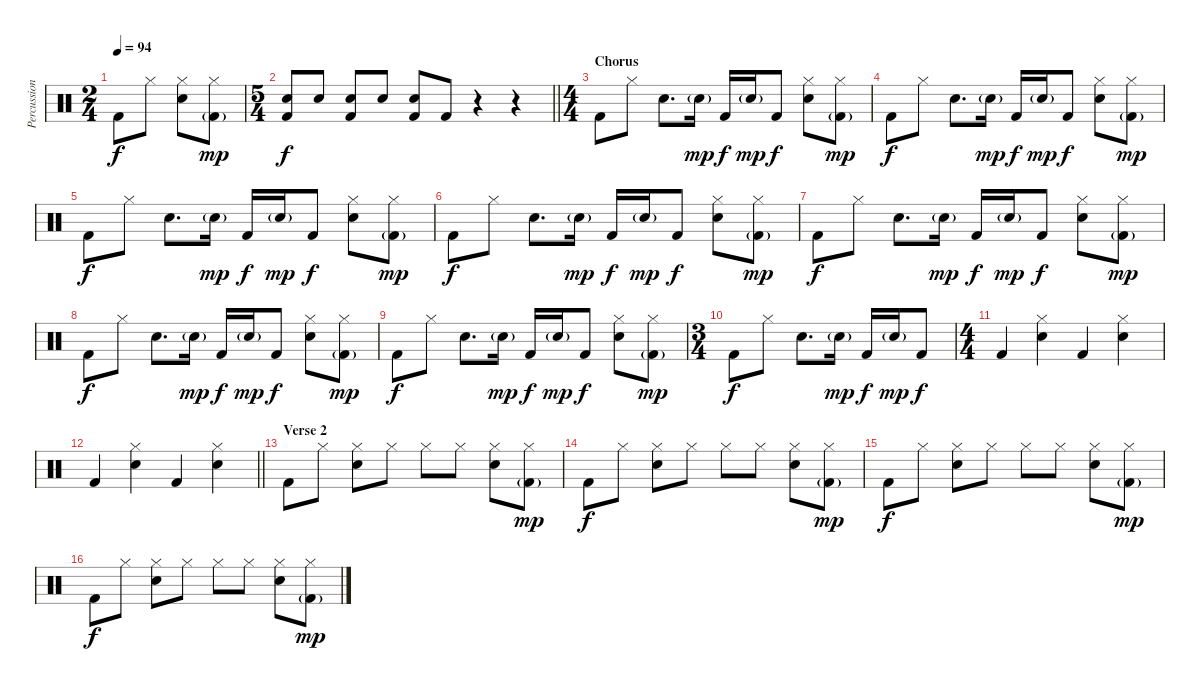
\track ("Percussion" "Percussion") {instrument percussion}
\staff {score}
\articulation defaults
\ts (2 4)
\tempo 94
\clef neutral
\ks c "Kick (hit) 2".8{dy f} "Hi-Hat (closed)".8
("Hi-Hat (closed)" "Snare (hit) 2").8 ("Hi-Hat (closed)" "Kick (hit) 2"{g}).8{dy mp} |
\ts (5 4)
\barLineRight lightlight
("Snare (hit) 2" "Kick (hit) 2").8{dy f} "Snare (hit) 2".8 ("Snare (hit) 2" "Kick (hit) 2").8 "Snare (hit) 2".8 ("Snare (hit) 2" "Kick (hit) 2").8 "Kick (hit) 2".8 r.4 r.4 |
\ts (4 4)
\section ("" "Chorus")
"Kick (hit) 2".8 "Hi-Hat (closed)".8 "Snare (hit) 2".8{d} "Snare (hit) 2"{g}.16{dy mp} "Kick (hit) 2".16{dy f} "Snare (hit) 2"{g}.16{dy mp} "Kick (hit) 2".8{dy f} ("Hi-Hat (closed)" "Snare (hit) 2").8 ("Hi-Hat (closed)" "Kick (hit) 2"{g}).8{dy mp} |
"Kick (hit) 2".8{dy f} "Hi-Hat (closed)".8 "Snare (hit) 2".8{d} "Snare (hit) 2"{g}.16{dy mp} "Kick (hit) 2".16{dy f} "Snare (hit) 2"{g}.16{dy mp} "Kick (hit) 2".8{dy f} ("Hi-Hat (closed)" "Snare (hit) 2").8 ("Hi-Hat (closed)" "Kick (hit) 2"{g}).8{dy mp} |
"Kick (hit) 2".8{dy f} "Hi-Hat (closed)".8 "Snare (hit) 2".8{d} "Snare (hit) 2"{g}.16{dy mp} "Kick (hit) 2".16{dy f} "Snare (hit) 2"{g}.16{dy mp} "Kick (hit) 2".8{dy f} ("Hi-Hat (closed)" "Snare (hit) 2").8 ("Hi-Hat (closed)" "Kick (hit) 2"{g}).8{dy mp} |
"Kick (hit) 2".8{dy f} "Hi-Hat (closed)".8 "Snare (hit) 2".8{d} "Snare (hit) 2"{g}.16{dy mp} "Kick (hit) 2".16{dy f} "Snare (hit) 2"{g}.16{dy mp} "Kick (hit) 2".8{dy f} ("Hi-Hat (closed)" "Snare (hit) 2").8 ("Hi-Hat (closed)" "Kick (hit) 2"{g}).8{dy mp} |
"Kick (hit) 2".8{dy f} "Hi-Hat (closed)".8 "Snare (hit) 2".8{d} "Snare (hit) 2"{g}.16{dy mp} "Kick (hit) 2".16{dy f} "Snare (hit) 2"{g}.16{dy mp} "Kick (hit) 2".8{dy f} ("Hi-Hat (closed)" "Snare (hit) 2").8 ("Hi-Hat (closed)" "Kick (hit) 2"{g}).8{dy mp} |
"Kick (hit) 2".8{dy f} "Hi-Hat (closed)".8 "Snare (hit) 2".8{d} "Snare (hit) 2"{g}.16{dy mp} "Kick (hit) 2".16{dy f} "Snare (hit) 2"{g}.16{dy mp} "Kick (hit) 2".8{dy f} ("Hi-Hat (closed)" "Snare (hit) 2").8 ("Hi-Hat (closed)" "Kick (hit) 2"{g}).8{dy mp} |
"Kick (hit) 2".8{dy f} "Hi-Hat (closed)".8 "Snare (hit) 2".8{d} "Snare (hit) 2"{g}.16{dy mp} "Kick (hit) 2".16{dy f} "Snare (hit) 2"{g}.16{dy mp} "Kick (hit) 2".8{dy f} ("Hi-Hat (closed)" "Snare (hit) 2").8 ("Hi-Hat (closed)" "Kick (hit) 2"{g}).8{dy mp} |
\ts (3 4)
"Kick (hit) 2".8{dy f} "Hi-Hat (closed)".8 "Snare (hit) 2".8{d} "Snare (hit) 2"{g}.16{dy mp} "Kick (hit) 2".16{dy f} "Snare (hit) 2"{g}.16{dy mp} "Kick (hit) 2".8{dy f} |
\ts (4 4)
"Kick (hit) 2".4 ("Hi-Hat (closed)" "Snare (hit) 2").4 "Kick (hit) 2".4 ("Hi-Hat (closed)" "Snare (hit) 2").4 |
\barLineRight lightlight "Kick (hit) 2".4
("Hi-Hat (closed)" "Snare (hit) 2").4 "Kick (hit) 2".4 ("Hi-Hat (closed)" "Snare (hit) 2").4 |
\section ("" "Verse 2")
"Kick (hit) 2".8 "Hi-Hat (closed)".8 ("Hi-Hat (closed)" "Snare (hit) 2").8 "Hi-Hat (closed)".8 "Hi-Hat (closed)".8 "Hi-Hat (closed)".8 ("Hi-Hat (closed)" "Snare (hit) 2").8 ("Hi-Hat (closed)" "Kick (hit) 2"{g}).8{dy mp} |
"Kick (hit) 2".8{dy f} "Hi-Hat (closed)".8 ("Hi-Hat (closed)" "Snare (hit) 2").8 "Hi-Hat (closed)".8 "Hi-Hat (closed)".8 "Hi-Hat (closed)".8 ("Hi-Hat (closed)" "Snare (hit) 2").8 ("Hi-Hat (closed)" "Kick (hit) 2"{g}).8{dy mp} |
"Kick (hit) 2".8{dy f} "Hi-Hat (closed)".8 ("Hi-Hat (closed)" "Snare (hit) 2").8 "Hi-Hat (closed)".8 "Hi-Hat (closed)".8 "Hi-Hat (closed)".8 ("Hi-Hat (closed)" "Snare (hit) 2").8 ("Hi-Hat (closed)" "Kick (hit) 2"{g}).8{dy mp} |
"Kick (hit) 2".8{dy f} "Hi-Hat (closed)".8 ("Hi-Hat (closed)" "Snare (hit) 2").8 "Hi-Hat (closed)".8 "Hi-Hat (closed)".8 "Hi-Hat (closed)".8 ("Hi-Hat (closed)" "Snare (hit) 2").8 ("Hi-Hat (closed)" "Kick (hit) 2"{g}).8{dy mp}
